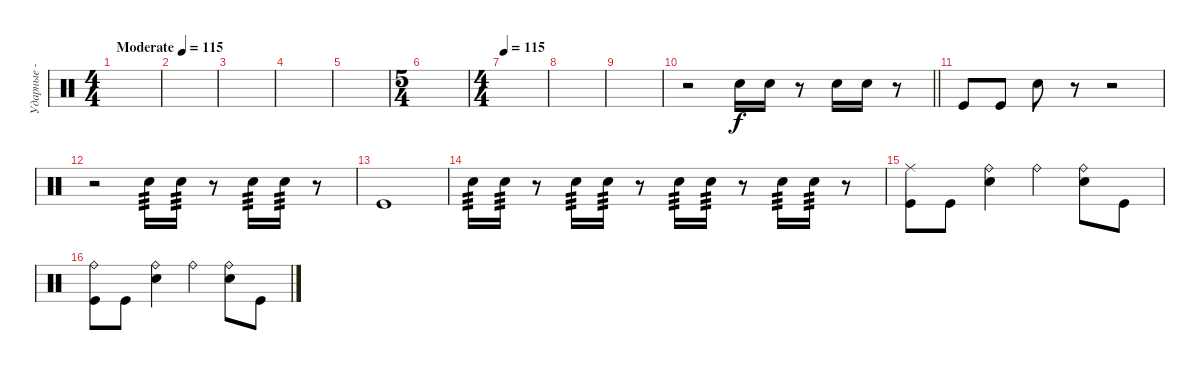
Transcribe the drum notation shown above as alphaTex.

\track ("Ударные - Джек Уайт" "Ударные - ") {instrument percussion}
\staff {score}
\articulation defaults
\ts (4 4)
\tempo (115 "Moderate")
\tempo 120
\tempo (115 "Moderate")
\clef neutral
\ks c
|
|
|
|
|
\ts (5 4)
|
\ts (4 4)
\tempo 115
|
|
|
\barLineRight lightlight
r.2 "Snare (hit) 2".16 "Snare (hit) 2".16 r.8 "Snare (hit) 2".16 "Snare (hit) 2".16 r.8 |
"Kick (hit)".8 "Kick (hit)".8 "Snare (hit) 2".8 r.8 r.2 |
r.2 "Snare (hit) 2".16{tp 3} "Snare (hit) 2".16{tp 3} r.8 "Snare (hit) 2".16{tp 3} "Snare (hit) 2".16{tp 3} r.8 |
"Kick (hit)".1 |
"Snare (hit) 2".16{tp 3} "Snare (hit) 2".16{tp 3} r.8 "Snare (hit) 2".16{tp 3} "Snare (hit) 2".16{tp 3} r.8 "Snare (hit) 2".16{tp 3} "Snare (hit) 2".16{tp 3} r.8 "Snare (hit) 2".16{tp 3} "Snare (hit) 2".16{tp 3} r.8 |
("Ride (middle)" "Kick (hit)").8 "Kick (hit)".8 ("Ride (bell)" "Snare (hit) 2").4 "Ride (bell)".4 ("Ride (bell)" "Snare (hit) 2").8 "Kick (hit)".8 |
("Ride (bell)" "Kick (hit)").8 "Kick (hit)".8 ("Ride (bell)" "Snare (hit) 2").4 "Ride (bell)".4 ("Ride (bell)" "Snare (hit) 2").8 "Kick (hit)".8
